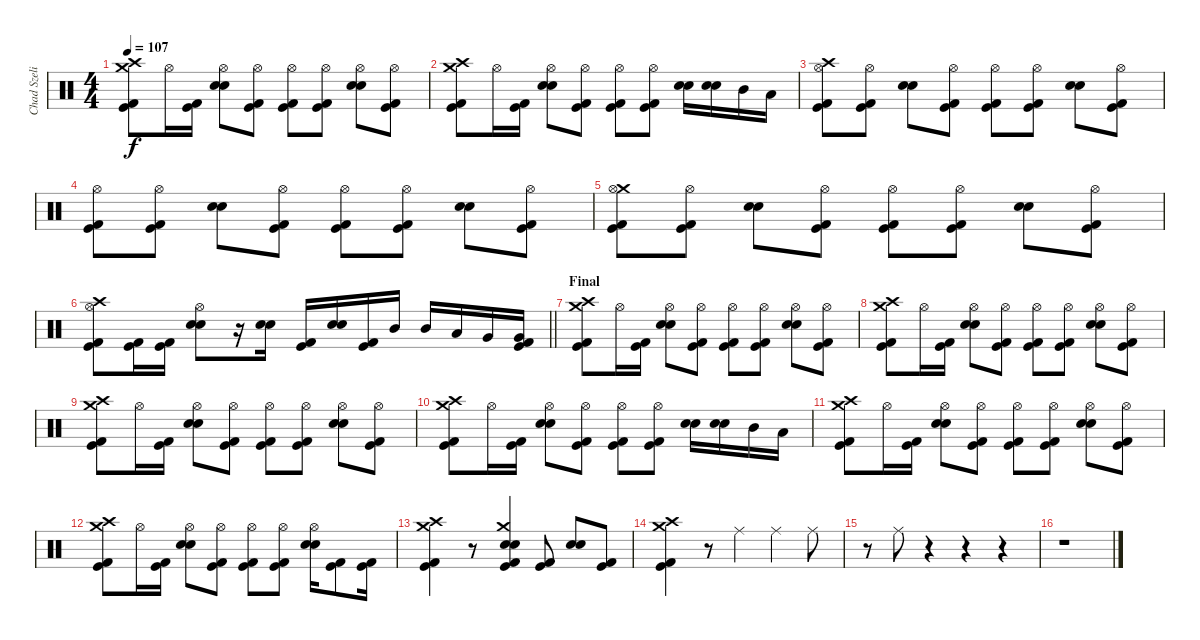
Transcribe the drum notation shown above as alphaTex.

\track ("Chad Szeliga" "Chad Szeli") {instrument percussion}
\staff {score}
\articulation defaults
\ts (4 4)
\tempo 107
\clef neutral
\ks c
("Crash high (hit)" "Kick (hit) 2" "Kick (hit)" "Crash medium (hit)").8{dy f} "Hi-Hat (open)".16 ("Kick (hit) 2" "Kick (hit)").16 ("Snare (hit) 2" "Snare (hit) 2" "Hi-Hat (open)").8 ("Kick (hit) 2" "Kick (hit)" "Hi-Hat (open)").8 ("Kick (hit) 2" "Kick (hit)" "Hi-Hat (open)").8 ("Kick (hit) 2" "Kick (hit)" "Hi-Hat (open)").8 ("Snare (hit) 2" "Snare (hit) 2" "Hi-Hat (open)").8 ("Kick (hit) 2" "Kick (hit)" "Hi-Hat (open)").8 |
("Crash high (hit)" "Kick (hit) 2" "Kick (hit)" "Crash medium (hit)").8 "Hi-Hat (open)".16 ("Kick (hit) 2" "Kick (hit)").16 ("Snare (hit) 2" "Snare (hit) 2" "Hi-Hat (open)").8 ("Kick (hit) 2" "Kick (hit)" "Hi-Hat (open)").8 ("Kick (hit) 2" "Kick (hit)" "Hi-Hat (open)").8 ("Kick (hit) 2" "Kick (hit)" "Hi-Hat (open)").8 ("Snare (hit) 2" "Snare (hit) 2").16 ("Snare (hit) 2" "Snare (hit) 2").16 "Mid Tom (hit)".16 "Low Tom (hit)".16 |
("Crash high (hit)" "Kick (hit) 2" "Kick (hit)" "Hi-Hat (open)").8 ("Kick (hit) 2" "Kick (hit)" "Hi-Hat (open)").8 ("Snare (hit) 2" "Snare (hit) 2").8 ("Kick (hit) 2" "Kick (hit)" "Hi-Hat (open)").8 ("Kick (hit) 2" "Kick (hit)" "Hi-Hat (open)").8 ("Kick (hit) 2" "Kick (hit)" "Hi-Hat (open)").8 ("Snare (hit) 2" "Snare (hit) 2").8 ("Kick (hit) 2" "Kick (hit)" "Hi-Hat (open)").8 |
("Kick (hit) 2" "Kick (hit)" "Hi-Hat (open)").8 ("Kick (hit) 2" "Kick (hit)" "Hi-Hat (open)").8 ("Snare (hit) 2" "Snare (hit) 2").8 ("Kick (hit) 2" "Kick (hit)" "Hi-Hat (open)").8 ("Kick (hit) 2" "Kick (hit)" "Hi-Hat (open)").8 ("Kick (hit) 2" "Kick (hit)" "Hi-Hat (open)").8 ("Snare (hit) 2" "Snare (hit) 2").8 ("Kick (hit) 2" "Kick (hit)" "Hi-Hat (open)").8 |
("Crash medium (hit)" "Kick (hit) 2" "Kick (hit)" "Hi-Hat (open)").8 ("Kick (hit) 2" "Kick (hit)" "Hi-Hat (open)").8 ("Snare (hit) 2" "Snare (hit) 2").8 ("Kick (hit) 2" "Kick (hit)" "Hi-Hat (open)").8 ("Kick (hit) 2" "Kick (hit)" "Hi-Hat (open)").8 ("Kick (hit) 2" "Kick (hit)" "Hi-Hat (open)").8 ("Snare (hit) 2" "Snare (hit) 2").8 ("Kick (hit) 2" "Kick (hit)" "Hi-Hat (open)").8 |
\barLineRight lightlight
("Crash high (hit)" "Kick (hit) 2" "Kick (hit)" "Hi-Hat (open)").8 ("Kick (hit) 2" "Kick (hit)").16 ("Kick (hit) 2" "Kick (hit)").16 ("Snare (hit) 2" "Snare (hit) 2" "Hi-Hat (open)").8 r.16 ("Snare (hit) 2" "Snare (hit) 2").16 ("Kick (hit) 2" "Kick (hit)").16 ("Snare (hit) 2" "Snare (hit) 2").16 ("Kick (hit) 2" "Kick (hit)").16 "Mid Tom (hit)".16 "Mid Tom (hit)".16 "Low Tom (hit)".16 "Very Low Tom (hit)".16 ("Kick (hit) 2" "Kick (hit)" "Very Low Tom (hit)").16 |
\section ("" "Final")
("Crash high (hit)" "Kick (hit) 2" "Kick (hit)" "Crash medium (hit)").8 "Hi-Hat (open)".16 ("Kick (hit) 2" "Kick (hit)").16 ("Snare (hit) 2" "Snare (hit) 2" "Hi-Hat (open)").8 ("Kick (hit) 2" "Kick (hit)" "Hi-Hat (open)").8 ("Kick (hit) 2" "Kick (hit)" "Hi-Hat (open)").8 ("Kick (hit) 2" "Kick (hit)" "Hi-Hat (open)").8 ("Snare (hit) 2" "Snare (hit) 2" "Hi-Hat (open)").8 ("Kick (hit) 2" "Kick (hit)" "Hi-Hat (open)").8 |
("Crash high (hit)" "Kick (hit) 2" "Kick (hit)" "Crash medium (hit)").8 "Hi-Hat (open)".16 ("Kick (hit) 2" "Kick (hit)").16 ("Snare (hit) 2" "Snare (hit) 2" "Hi-Hat (open)").8 ("Kick (hit) 2" "Kick (hit)" "Hi-Hat (open)").8 ("Kick (hit) 2" "Kick (hit)" "Hi-Hat (open)").8 ("Kick (hit) 2" "Kick (hit)" "Hi-Hat (open)").8 ("Snare (hit) 2" "Snare (hit) 2" "Hi-Hat (open)").8 ("Kick (hit) 2" "Kick (hit)" "Hi-Hat (open)").8 |
("Crash high (hit)" "Kick (hit) 2" "Kick (hit)" "Crash medium (hit)").8 "Hi-Hat (open)".16 ("Kick (hit) 2" "Kick (hit)").16 ("Snare (hit) 2" "Snare (hit) 2" "Hi-Hat (open)").8 ("Kick (hit) 2" "Kick (hit)" "Hi-Hat (open)").8 ("Kick (hit) 2" "Kick (hit)" "Hi-Hat (open)").8 ("Kick (hit) 2" "Kick (hit)" "Hi-Hat (open)").8 ("Snare (hit) 2" "Snare (hit) 2" "Hi-Hat (open)").8 ("Kick (hit) 2" "Kick (hit)" "Hi-Hat (open)").8 |
("Crash high (hit)" "Kick (hit) 2" "Kick (hit)" "Crash medium (hit)").8 "Hi-Hat (open)".16 ("Kick (hit) 2" "Kick (hit)").16 ("Snare (hit) 2" "Snare (hit) 2" "Hi-Hat (open)").8 ("Kick (hit) 2" "Kick (hit)" "Hi-Hat (open)").8 ("Kick (hit) 2" "Kick (hit)" "Hi-Hat (open)").8 ("Kick (hit) 2" "Kick (hit)" "Hi-Hat (open)").8 ("Snare (hit) 2" "Snare (hit) 2").16 ("Snare (hit) 2" "Snare (hit) 2").16 "Mid Tom (hit)".16 "Low Tom (hit)".16 |
("Crash high (hit)" "Kick (hit) 2" "Kick (hit)" "Crash medium (hit)").8 "Hi-Hat (open)".16 ("Kick (hit) 2" "Kick (hit)").16 ("Snare (hit) 2" "Snare (hit) 2" "Hi-Hat (open)").8 ("Kick (hit) 2" "Kick (hit)" "Hi-Hat (open)").8 ("Kick (hit) 2" "Kick (hit)" "Hi-Hat (open)").8 ("Kick (hit) 2" "Kick (hit)" "Hi-Hat (open)").8 ("Snare (hit) 2" "Snare (hit) 2" "Hi-Hat (open)").8 ("Kick (hit) 2" "Kick (hit)" "Hi-Hat (open)").8 |
("Crash high (hit)" "Kick (hit) 2" "Kick (hit)" "Crash medium (hit)").8 "Hi-Hat (open)".16 ("Kick (hit) 2" "Kick (hit)").16 ("Snare (hit) 2" "Snare (hit) 2" "Hi-Hat (open)").8 ("Kick (hit) 2" "Kick (hit)" "Hi-Hat (open)").8 ("Kick (hit) 2" "Kick (hit)" "Hi-Hat (open)").8 ("Kick (hit) 2" "Kick (hit)" "Hi-Hat (open)").8 ("Snare (hit) 2" "Snare (hit) 2" "Hi-Hat (open)").16 ("Kick (hit) 2" "Kick (hit)").8 ("Kick (hit) 2" "Kick (hit)").16 |
("Crash high (hit)" "Kick (hit) 2" "Kick (hit)" "Crash medium (hit)").4 r.8 ("Crash medium (hit)" "Kick (hit) 2" "Kick (hit)" "Snare (hit) 2" "Snare (hit) 2").4 ("Kick (hit) 2" "Kick (hit)").8 ("Snare (hit) 2" "Snare (hit) 2").8 ("Kick (hit) 2" "Kick (hit)").8 |
("Crash high (hit)" "Kick (hit) 2" "Kick (hit)" "Crash medium (hit)").4 r.8 "Ride (middle)".4 "Ride (middle)".4 "Ride (middle)".8 |
r.8 "Ride (middle)".8 r.4 r.4 r.4 |
r.1
